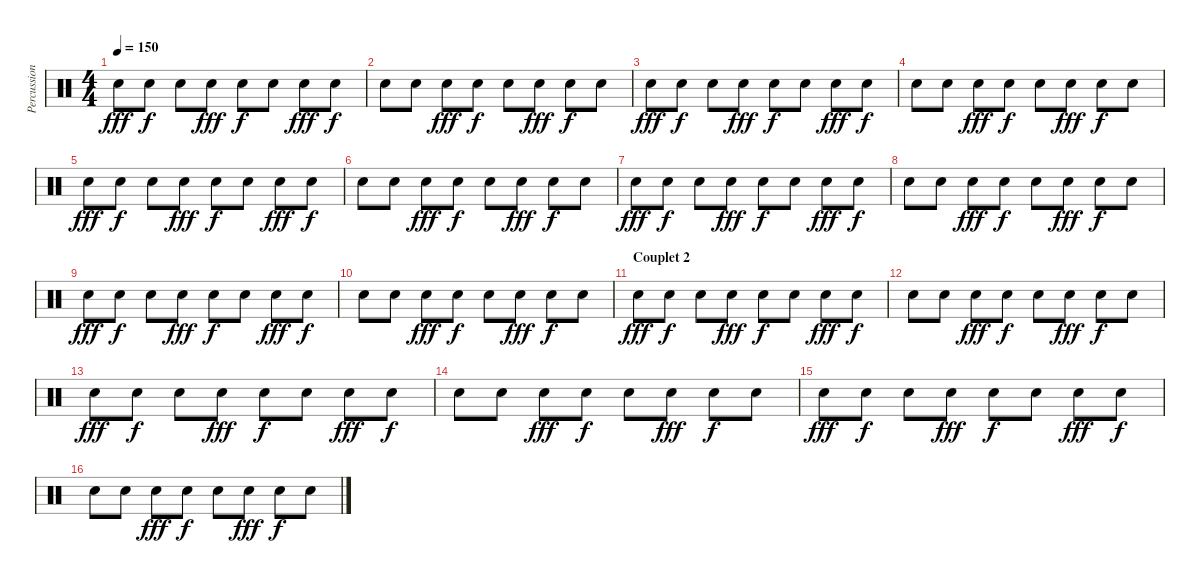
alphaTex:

\track ("Percussions" "Percussion") {instrument percussion}
\staff {score}
\articulation defaults
\ts (4 4)
\tempo 150
\clef neutral
\ks c "Electric Snare (hit)".8{dy fff} "Electric Snare (hit)".8{dy f} "Electric Snare (hit)".8 "Electric Snare (hit)".8{dy fff} "Electric Snare (hit)".8{dy f} "Electric Snare (hit)".8 "Electric Snare (hit)".8{dy fff} "Electric Snare (hit)".8{dy f}
|
"Electric Snare (hit)".8 "Electric Snare (hit)".8 "Electric Snare (hit)".8{dy fff} "Electric Snare (hit)".8{dy f} "Electric Snare (hit)".8 "Electric Snare (hit)".8{dy fff} "Electric Snare (hit)".8{dy f} "Electric Snare (hit)".8 |
"Electric Snare (hit)".8{dy fff} "Electric Snare (hit)".8{dy f} "Electric Snare (hit)".8 "Electric Snare (hit)".8{dy fff} "Electric Snare (hit)".8{dy f} "Electric Snare (hit)".8 "Electric Snare (hit)".8{dy fff} "Electric Snare (hit)".8{dy f} |
"Electric Snare (hit)".8 "Electric Snare (hit)".8 "Electric Snare (hit)".8{dy fff} "Electric Snare (hit)".8{dy f} "Electric Snare (hit)".8 "Electric Snare (hit)".8{dy fff} "Electric Snare (hit)".8{dy f} "Electric Snare (hit)".8 |
"Electric Snare (hit)".8{dy fff} "Electric Snare (hit)".8{dy f} "Electric Snare (hit)".8 "Electric Snare (hit)".8{dy fff} "Electric Snare (hit)".8{dy f} "Electric Snare (hit)".8 "Electric Snare (hit)".8{dy fff} "Electric Snare (hit)".8{dy f} |
"Electric Snare (hit)".8 "Electric Snare (hit)".8 "Electric Snare (hit)".8{dy fff} "Electric Snare (hit)".8{dy f} "Electric Snare (hit)".8 "Electric Snare (hit)".8{dy fff} "Electric Snare (hit)".8{dy f} "Electric Snare (hit)".8 |
"Electric Snare (hit)".8{dy fff} "Electric Snare (hit)".8{dy f} "Electric Snare (hit)".8 "Electric Snare (hit)".8{dy fff} "Electric Snare (hit)".8{dy f} "Electric Snare (hit)".8 "Electric Snare (hit)".8{dy fff} "Electric Snare (hit)".8{dy f} |
"Electric Snare (hit)".8 "Electric Snare (hit)".8 "Electric Snare (hit)".8{dy fff} "Electric Snare (hit)".8{dy f} "Electric Snare (hit)".8 "Electric Snare (hit)".8{dy fff} "Electric Snare (hit)".8{dy f} "Electric Snare (hit)".8 |
"Electric Snare (hit)".8{dy fff} "Electric Snare (hit)".8{dy f} "Electric Snare (hit)".8 "Electric Snare (hit)".8{dy fff} "Electric Snare (hit)".8{dy f} "Electric Snare (hit)".8 "Electric Snare (hit)".8{dy fff} "Electric Snare (hit)".8{dy f} |
"Electric Snare (hit)".8 "Electric Snare (hit)".8 "Electric Snare (hit)".8{dy fff} "Electric Snare (hit)".8{dy f} "Electric Snare (hit)".8 "Electric Snare (hit)".8{dy fff} "Electric Snare (hit)".8{dy f} "Electric Snare (hit)".8 |
\section ("" "Couplet 2")
"Electric Snare (hit)".8{dy fff} "Electric Snare (hit)".8{dy f} "Electric Snare (hit)".8 "Electric Snare (hit)".8{dy fff} "Electric Snare (hit)".8{dy f} "Electric Snare (hit)".8 "Electric Snare (hit)".8{dy fff} "Electric Snare (hit)".8{dy f} |
"Electric Snare (hit)".8 "Electric Snare (hit)".8 "Electric Snare (hit)".8{dy fff} "Electric Snare (hit)".8{dy f} "Electric Snare (hit)".8 "Electric Snare (hit)".8{dy fff} "Electric Snare (hit)".8{dy f} "Electric Snare (hit)".8 |
"Electric Snare (hit)".8{dy fff} "Electric Snare (hit)".8{dy f} "Electric Snare (hit)".8 "Electric Snare (hit)".8{dy fff} "Electric Snare (hit)".8{dy f} "Electric Snare (hit)".8 "Electric Snare (hit)".8{dy fff} "Electric Snare (hit)".8{dy f} |
"Electric Snare (hit)".8 "Electric Snare (hit)".8 "Electric Snare (hit)".8{dy fff} "Electric Snare (hit)".8{dy f} "Electric Snare (hit)".8 "Electric Snare (hit)".8{dy fff} "Electric Snare (hit)".8{dy f} "Electric Snare (hit)".8 |
"Electric Snare (hit)".8{dy fff} "Electric Snare (hit)".8{dy f} "Electric Snare (hit)".8 "Electric Snare (hit)".8{dy fff} "Electric Snare (hit)".8{dy f} "Electric Snare (hit)".8 "Electric Snare (hit)".8{dy fff} "Electric Snare (hit)".8{dy f} |
"Electric Snare (hit)".8 "Electric Snare (hit)".8 "Electric Snare (hit)".8{dy fff} "Electric Snare (hit)".8{dy f} "Electric Snare (hit)".8 "Electric Snare (hit)".8{dy fff} "Electric Snare (hit)".8{dy f} "Electric Snare (hit)".8
